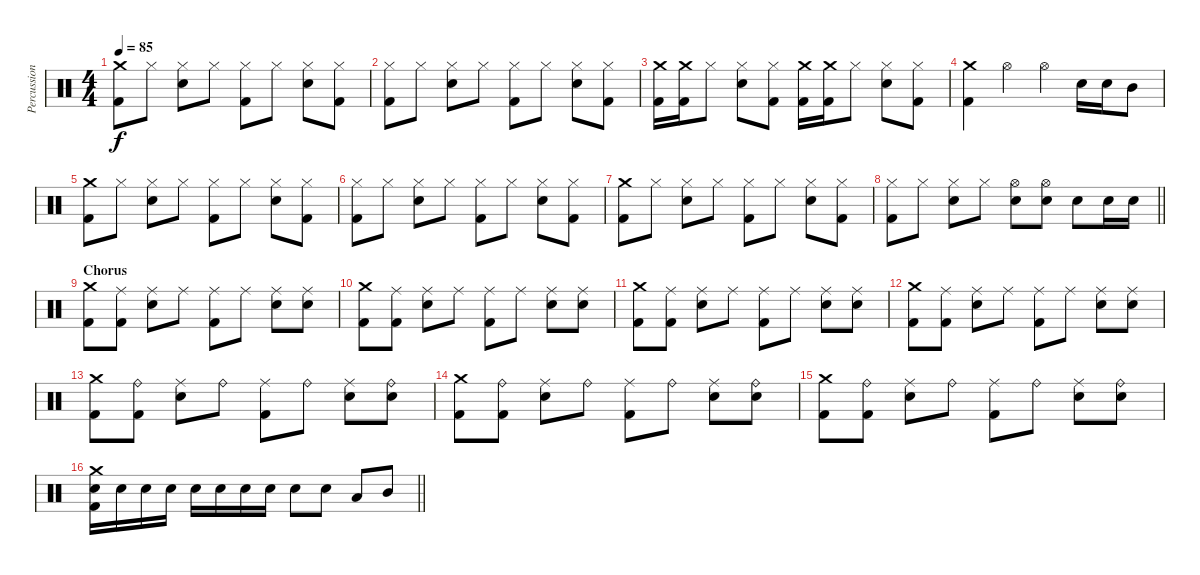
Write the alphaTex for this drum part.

\track ("Percussion" "Percussion") {instrument percussion}
\staff {score}
\articulation defaults
\ts (4 4)
\tempo 85
\clef neutral
\ks c
("Crash medium (hit)" "Kick (hit) 2").8{dy f} "Hi-Hat (closed)".8 ("Hi-Hat (closed)" "Electric Snare (hit)").8 "Hi-Hat (closed)".8 ("Hi-Hat (closed)" "Kick (hit) 2").8 "Hi-Hat (closed)".8 ("Hi-Hat (closed)" "Electric Snare (hit)").8 ("Hi-Hat (closed)" "Kick (hit) 2").8 |
("Hi-Hat (closed)" "Kick (hit) 2").8 "Hi-Hat (closed)".8 ("Hi-Hat (closed)" "Electric Snare (hit)").8 "Hi-Hat (closed)".8 ("Hi-Hat (closed)" "Kick (hit) 2").8 "Hi-Hat (closed)".8 ("Hi-Hat (closed)" "Electric Snare (hit)").8 ("Hi-Hat (closed)" "Kick (hit) 2").8 |
("Crash medium (hit)" "Kick (hit) 2").16 ("Crash medium (hit)" "Kick (hit) 2").16 "Hi-Hat (closed)".8 ("Hi-Hat (closed)" "Electric Snare (hit)").8 ("Hi-Hat (closed)" "Kick (hit) 2").8 ("Crash medium (hit)" "Kick (hit) 2").16 ("Crash medium (hit)" "Kick (hit) 2").16 "Hi-Hat (closed)".8 ("Hi-Hat (closed)" "Electric Snare (hit)").8 ("Hi-Hat (closed)" "Kick (hit) 2").8 |
("Crash medium (hit)" "Kick (hit) 2").4 "Hi-Hat (open)".4 "Hi-Hat (open)".4 "Electric Snare (hit)".16 "Electric Snare (hit)".16 "Mid Tom (hit)".8 |
("Crash medium (hit)" "Kick (hit) 2").8 "Hi-Hat (closed)".8 ("Hi-Hat (closed)" "Electric Snare (hit)").8 "Hi-Hat (closed)".8 ("Hi-Hat (closed)" "Kick (hit) 2").8 "Hi-Hat (closed)".8 ("Hi-Hat (closed)" "Electric Snare (hit)").8 ("Hi-Hat (closed)" "Kick (hit) 2").8 |
("Hi-Hat (closed)" "Kick (hit) 2").8 "Hi-Hat (closed)".8 ("Hi-Hat (closed)" "Electric Snare (hit)").8 "Hi-Hat (closed)".8 ("Hi-Hat (closed)" "Kick (hit) 2").8 "Hi-Hat (closed)".8 ("Hi-Hat (closed)" "Electric Snare (hit)").8 ("Hi-Hat (closed)" "Kick (hit) 2").8 |
("Crash medium (hit)" "Kick (hit) 2").8 "Hi-Hat (closed)".8 ("Hi-Hat (closed)" "Electric Snare (hit)").8 "Hi-Hat (closed)".8 ("Hi-Hat (closed)" "Kick (hit) 2").8 "Hi-Hat (closed)".8 ("Hi-Hat (closed)" "Electric Snare (hit)").8 ("Hi-Hat (closed)" "Kick (hit) 2").8 |
\barLineRight lightlight
("Hi-Hat (closed)" "Kick (hit) 2").8 "Hi-Hat (closed)".8 ("Hi-Hat (closed)" "Electric Snare (hit)").8 "Hi-Hat (closed)".8 ("Hi-Hat (open)" "Electric Snare (hit)").8 ("Hi-Hat (open)" "Electric Snare (hit)").8 "Electric Snare (hit)".8 "Electric Snare (hit)".16 "Electric Snare (hit)".16 |
\section ("" "Chorus")
("Crash medium (hit)" "Kick (hit) 2").8 ("Ride (middle)" "Kick (hit) 2").8 ("Ride (middle)" "Electric Snare (hit)").8 "Ride (middle)".8 ("Ride (middle)" "Kick (hit) 2").8 "Ride (middle)".8 ("Ride (middle)" "Electric Snare (hit)").8 ("Ride (middle)" "Electric Snare (hit)").8 |
("Crash medium (hit)" "Kick (hit) 2").8 ("Ride (middle)" "Kick (hit) 2").8 ("Ride (middle)" "Electric Snare (hit)").8 "Ride (middle)".8 ("Ride (middle)" "Kick (hit) 2").8 "Ride (middle)".8 ("Ride (middle)" "Electric Snare (hit)").8 ("Ride (middle)" "Electric Snare (hit)").8 |
("Crash medium (hit)" "Kick (hit) 2").8 ("Ride (middle)" "Kick (hit) 2").8 ("Ride (middle)" "Electric Snare (hit)").8 "Ride (middle)".8 ("Ride (middle)" "Kick (hit) 2").8 "Ride (middle)".8 ("Ride (middle)" "Electric Snare (hit)").8 ("Ride (middle)" "Electric Snare (hit)").8 |
("Crash medium (hit)" "Kick (hit) 2").8 ("Ride (middle)" "Kick (hit) 2").8 ("Ride (middle)" "Electric Snare (hit)").8 "Ride (middle)".8 ("Ride (middle)" "Kick (hit) 2").8 "Ride (middle)".8 ("Ride (middle)" "Electric Snare (hit)").8 ("Ride (middle)" "Electric Snare (hit)").8 |
("Crash medium (hit)" "Kick (hit) 2").8 ("Ride (bell)" "Kick (hit) 2").8 ("Ride (middle)" "Electric Snare (hit)").8 "Ride (bell)".8 ("Ride (middle)" "Kick (hit) 2").8 "Ride (bell)".8 ("Ride (middle)" "Electric Snare (hit)").8 ("Ride (bell)" "Electric Snare (hit)").8 |
("Crash medium (hit)" "Kick (hit) 2").8 ("Ride (bell)" "Kick (hit) 2").8 ("Ride (middle)" "Electric Snare (hit)").8 "Ride (bell)".8 ("Ride (middle)" "Kick (hit) 2").8 "Ride (bell)".8 ("Ride (middle)" "Electric Snare (hit)").8 ("Ride (bell)" "Electric Snare (hit)").8 |
("Crash medium (hit)" "Kick (hit) 2").8 ("Ride (bell)" "Kick (hit) 2").8 ("Ride (middle)" "Electric Snare (hit)").8 "Ride (bell)".8 ("Ride (middle)" "Kick (hit) 2").8 "Ride (bell)".8 ("Ride (middle)" "Electric Snare (hit)").8 ("Ride (bell)" "Electric Snare (hit)").8 |
\barLineRight lightlight
("Crash medium (hit)" "Electric Snare (hit)" "Kick (hit) 2").16 "Electric Snare (hit)".16 "Electric Snare (hit)".16 "Electric Snare (hit)".16 "Electric Snare (hit)".16 "Electric Snare (hit)".16 "Electric Snare (hit)".16 "Electric Snare (hit)".16 "Electric Snare (hit)".8 "Electric Snare (hit)".8 "Low Tom (hit)".8 "Mid Tom (hit)".8
